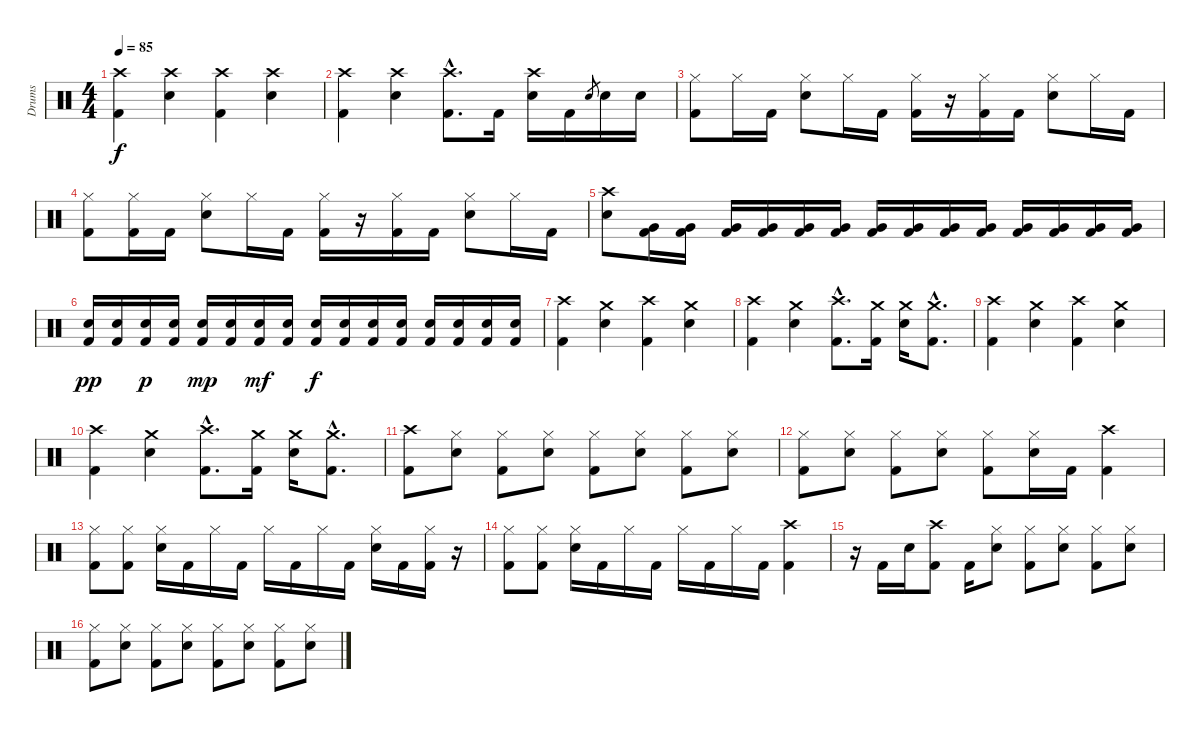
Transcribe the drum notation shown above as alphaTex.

\track ("Drums" "Drums") {instrument percussion}
\staff {score}
\articulation defaults
\ts (4 4)
\tempo 85
\clef neutral
\ks c
("Crash high (hit)" "Kick (hit) 2").4{dy f} ("Crash high (hit)" "Electric Snare (hit)").4 ("Crash high (hit)" "Kick (hit) 2").4 ("Crash high (hit)" "Electric Snare (hit)").4 |
("Crash high (hit)" "Kick (hit) 2").4 ("Crash high (hit)" "Electric Snare (hit)").4 ("Crash high (hit)"{hac} "Kick (hit) 2"{hac}).8{d} "Kick (hit) 2".16 ("Crash high (hit)" "Electric Snare (hit)").16 "Kick (hit) 2".16 "Electric Snare (hit)".8{gr} "Electric Snare (hit)".16 "Electric Snare (hit)".16 |
("Hi-Hat (closed)" "Kick (hit) 2").8 "Hi-Hat (closed)".16 "Kick (hit) 2".16 ("Hi-Hat (closed)" "Electric Snare (hit)").8 "Hi-Hat (closed)".16 "Kick (hit) 2".16 ("Hi-Hat (closed)" "Kick (hit) 2").16 r.16 ("Hi-Hat (closed)" "Kick (hit) 2").16 "Kick (hit) 2".16 ("Hi-Hat (closed)" "Electric Snare (hit)").8 "Hi-Hat (closed)".16 "Kick (hit) 2".16 |
("Hi-Hat (closed)" "Kick (hit) 2").8 ("Hi-Hat (closed)" "Kick (hit) 2").16 "Kick (hit) 2".16 ("Hi-Hat (closed)" "Electric Snare (hit)").8 "Hi-Hat (closed)".16 "Kick (hit) 2".16 ("Hi-Hat (closed)" "Kick (hit) 2").16 r.16 ("Hi-Hat (closed)" "Kick (hit) 2").16 "Kick (hit) 2".16 ("Hi-Hat (closed)" "Electric Snare (hit)").8 "Hi-Hat (closed)".16 "Kick (hit) 2".16 |
("Crash high (hit)" "Electric Snare (hit)").8 ("Very Low Tom (hit)" "Kick (hit) 2").16 ("Very Low Tom (hit)" "Kick (hit) 2").16 ("Very Low Tom (hit)" "Kick (hit) 2").16 ("Very Low Tom (hit)" "Kick (hit) 2").16 ("Very Low Tom (hit)" "Kick (hit) 2").16 ("Very Low Tom (hit)" "Kick (hit) 2").16 ("Very Low Tom (hit)" "Kick (hit) 2").16 ("Very Low Tom (hit)" "Kick (hit) 2").16 ("Very Low Tom (hit)" "Kick (hit) 2").16 ("Very Low Tom (hit)" "Kick (hit) 2").16 ("Very Low Tom (hit)" "Kick (hit) 2").16 ("Very Low Tom (hit)" "Kick (hit) 2").16 ("Very Low Tom (hit)" "Kick (hit) 2").16 ("Very Low Tom (hit)" "Kick (hit) 2").16 |
("Electric Snare (hit)" "Kick (hit) 2").16{dy pp} ("Electric Snare (hit)" "Kick (hit) 2").16 ("Electric Snare (hit)" "Kick (hit) 2").16{dy p} ("Electric Snare (hit)" "Kick (hit) 2").16 ("Electric Snare (hit)" "Kick (hit) 2").16{dy mp} ("Electric Snare (hit)" "Kick (hit) 2").16 ("Electric Snare (hit)" "Kick (hit) 2").16{dy mf} ("Electric Snare (hit)" "Kick (hit) 2").16 ("Electric Snare (hit)" "Kick (hit) 2").16{dy f} ("Electric Snare (hit)" "Kick (hit) 2").16 ("Electric Snare (hit)" "Kick (hit) 2").16 ("Electric Snare (hit)" "Kick (hit) 2").16 ("Electric Snare (hit)" "Kick (hit) 2").16 ("Electric Snare (hit)" "Kick (hit) 2").16 ("Electric Snare (hit)" "Kick (hit) 2").16 ("Electric Snare (hit)" "Kick (hit) 2").16 |
("Crash high (hit)" "Kick (hit) 2").4 ("Crash medium (hit)" "Electric Snare (hit)").4 ("Crash high (hit)" "Kick (hit) 2").4 ("Crash medium (hit)" "Electric Snare (hit)").4 |
("Crash high (hit)" "Kick (hit) 2").4 ("Crash medium (hit)" "Electric Snare (hit)").4 ("Crash high (hit)"{hac} "Kick (hit) 2"{hac}).8{d} ("Crash medium (hit)" "Kick (hit) 2").16 ("Crash medium (hit)" "Electric Snare (hit)").16 ("Crash medium (hit)"{hac} "Kick (hit) 2"{hac}).8{d} |
("Crash high (hit)" "Kick (hit) 2").4 ("Crash medium (hit)" "Electric Snare (hit)").4 ("Crash high (hit)" "Kick (hit) 2").4 ("Crash medium (hit)" "Electric Snare (hit)").4 |
("Crash high (hit)" "Kick (hit) 2").4 ("Crash medium (hit)" "Electric Snare (hit)").4 ("Crash high (hit)"{hac} "Kick (hit) 2"{hac}).8{d} ("Crash medium (hit)" "Kick (hit) 2").16 ("Crash medium (hit)" "Electric Snare (hit)").16 ("Crash medium (hit)"{hac} "Kick (hit) 2"{hac}).8{d} |
("Crash high (hit)" "Kick (hit) 2").8 ("Hi-Hat (closed)" "Electric Snare (hit)").8 ("Hi-Hat (closed)" "Kick (hit) 2").8 ("Hi-Hat (closed)" "Electric Snare (hit)").8 ("Hi-Hat (closed)" "Kick (hit) 2").8 ("Hi-Hat (closed)" "Electric Snare (hit)").8 ("Hi-Hat (closed)" "Kick (hit) 2").8 ("Hi-Hat (closed)" "Electric Snare (hit)").8 |
("Hi-Hat (closed)" "Kick (hit) 2").8 ("Hi-Hat (closed)" "Electric Snare (hit)").8 ("Hi-Hat (closed)" "Kick (hit) 2").8 ("Hi-Hat (closed)" "Electric Snare (hit)").8 ("Hi-Hat (closed)" "Kick (hit) 2").8 ("Hi-Hat (closed)" "Electric Snare (hit)").16 "Kick (hit) 2".16 ("Crash high (hit)" "Kick (hit) 2").4 |
("Hi-Hat (closed)" "Kick (hit) 2").8 ("Hi-Hat (closed)" "Kick (hit) 2").8 ("Hi-Hat (closed)" "Electric Snare (hit)").16 "Kick (hit) 2".16 "Hi-Hat (closed)".16 "Kick (hit) 2".16 "Hi-Hat (closed)".16 "Kick (hit) 2".16 "Hi-Hat (closed)".16 "Kick (hit) 2".16 ("Hi-Hat (closed)" "Electric Snare (hit)").16 "Kick (hit) 2".16 ("Hi-Hat (closed)" "Kick (hit) 2").16 r.16 |
("Hi-Hat (closed)" "Kick (hit) 2").8 ("Hi-Hat (closed)" "Kick (hit) 2").8 ("Hi-Hat (closed)" "Electric Snare (hit)").16 "Kick (hit) 2".16 "Hi-Hat (closed)".16 "Kick (hit) 2".16 "Hi-Hat (closed)".16 "Kick (hit) 2".16 "Hi-Hat (closed)".16 "Kick (hit) 2".16 ("Crash high (hit)" "Kick (hit) 2").4 |
r.16 "Kick (hit) 2".16 "Electric Snare (hit)".16 ("Crash high (hit)" "Kick (hit) 2").8 "Kick (hit) 2".16 ("Hi-Hat (closed)" "Electric Snare (hit)").8 ("Hi-Hat (closed)" "Kick (hit) 2").8 ("Hi-Hat (closed)" "Electric Snare (hit)").8 ("Hi-Hat (closed)" "Kick (hit) 2").8 ("Hi-Hat (closed)" "Electric Snare (hit)").8 |
("Hi-Hat (closed)" "Kick (hit) 2").8 ("Hi-Hat (closed)" "Electric Snare (hit)").8 ("Hi-Hat (closed)" "Kick (hit) 2").8 ("Hi-Hat (closed)" "Electric Snare (hit)").8 ("Hi-Hat (closed)" "Kick (hit) 2").8 ("Hi-Hat (closed)" "Electric Snare (hit)").8 ("Hi-Hat (closed)" "Kick (hit) 2").8 ("Hi-Hat (closed)" "Electric Snare (hit)").8
